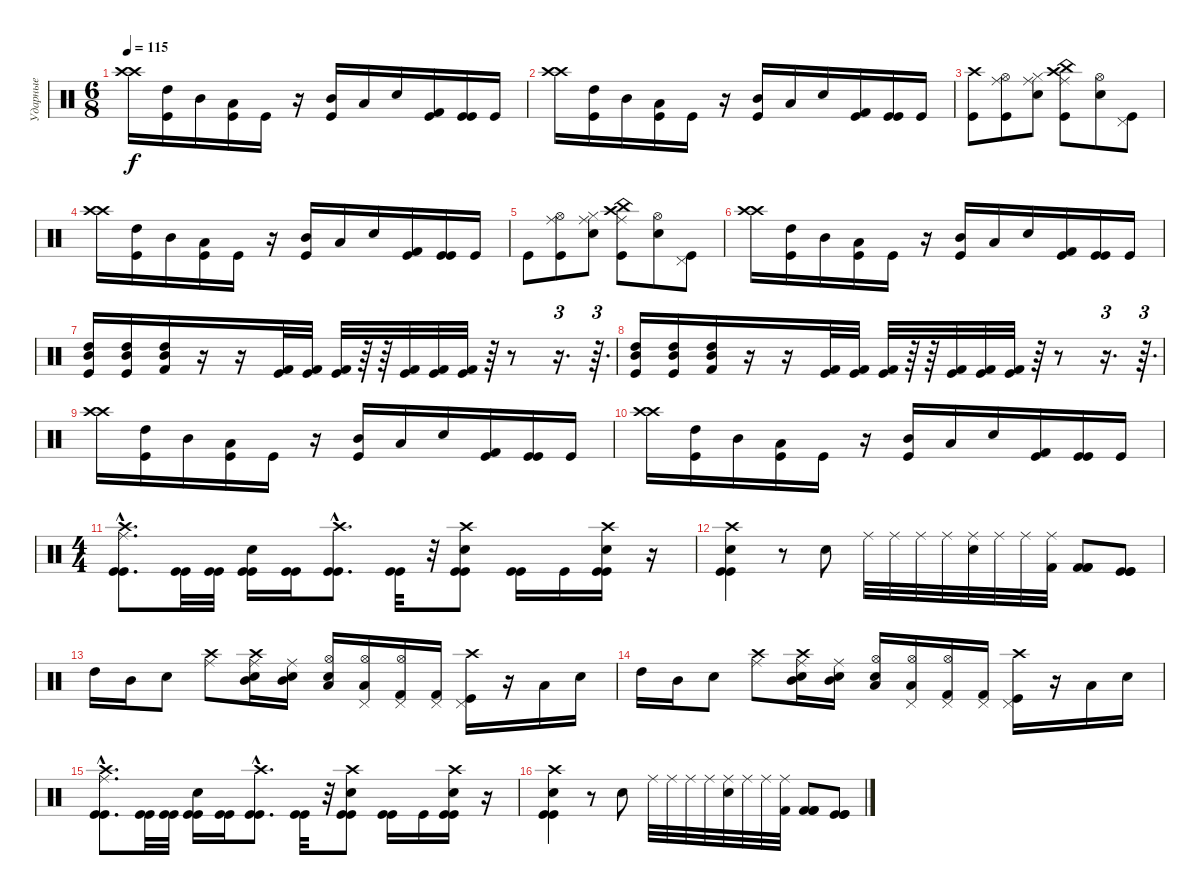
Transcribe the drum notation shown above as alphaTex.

\track ("Ударные" "Ударные") {instrument percussion}
\staff {score}
\articulation defaults
\ts (6 8)
\tempo 115
\clef neutral
\ks c
("Crash high (hit)" "Crash high (hit)").16{dy f} ("High Tom (hit)" "Kick (hit)").16 "Mid Tom (hit)".16 ("Low Tom (hit)" "Kick (hit)").16 "Kick (hit)".16 r.16 ("Mid Tom (hit)" "Kick (hit)").16 "Low Tom (hit)".16 "Snare (hit) 2".16 ("Kick (hit) 2" "Kick (hit)").16 ("Kick (hit)" "Kick (hit)").16 "Kick (hit)".16 |
("Crash high (hit)" "Crash high (hit)").16 ("High Tom (hit)" "Kick (hit)").16 "Mid Tom (hit)".16 ("Low Tom (hit)" "Kick (hit)").16 "Kick (hit)".16 r.16 ("Mid Tom (hit)" "Kick (hit)").16 "Low Tom (hit)".16 "Snare (hit) 2".16 ("Kick (hit) 2" "Kick (hit)").16 ("Kick (hit)" "Kick (hit)").16 "Kick (hit)".16 |
("Kick (hit)" "Crash high (hit)").8 ("Ride (middle)" "Kick (hit)" "Hi-Hat (open)").8 ("Ride (middle)" "Snare (hit) 2" "Hi-Hat (closed)").8 ("Ride (middle)" "Kick (hit)" "China (hit)" "Crash high (hit)").8 ("Hi-Hat (open)" "Electric Snare (hit)").8 ("Pedal Hi-Hat (hit)" "Kick (hit)").8 |
("Crash high (hit)" "Crash high (hit)").16 ("High Tom (hit)" "Kick (hit)").16 "Mid Tom (hit)".16 ("Low Tom (hit)" "Kick (hit)").16 "Kick (hit)".16 r.16 ("Mid Tom (hit)" "Kick (hit)").16 "Low Tom (hit)".16 "Snare (hit) 2".16 ("Kick (hit) 2" "Kick (hit)").16 ("Kick (hit)" "Kick (hit)").16 "Kick (hit)".16 |
"Kick (hit)".8 ("Ride (middle)" "Kick (hit)" "Hi-Hat (open)").8 ("Ride (middle)" "Snare (hit) 2" "Hi-Hat (closed)").8 ("Ride (middle)" "Kick (hit)" "China (hit)" "Crash high (hit)").8 ("Hi-Hat (open)" "Electric Snare (hit)").8 ("Pedal Hi-Hat (hit)" "Kick (hit)").8 |
("Crash high (hit)" "Crash high (hit)").16 ("High Tom (hit)" "Kick (hit)").16 "Mid Tom (hit)".16 ("Low Tom (hit)" "Kick (hit)").16 "Kick (hit)".16 r.16 ("Mid Tom (hit)" "Kick (hit)").16 "Low Tom (hit)".16 "Snare (hit) 2".16 ("Kick (hit) 2" "Kick (hit)").16 ("Kick (hit)" "Kick (hit)").16 "Kick (hit)".16 |
("High Tom (hit)" "Mid Tom (hit)" "Kick (hit)").16 ("High Tom (hit)" "Mid Tom (hit)" "Kick (hit)").16 ("High Tom (hit)" "Mid Tom (hit)" "Kick (hit) 2").16 r.16 r.16 ("Kick (hit)" "Kick (hit) 2").32 ("Kick (hit)" "Kick (hit) 2").32 ("Kick (hit)" "Kick (hit) 2").32 r.64 r.64 ("Kick (hit)" "Kick (hit) 2").32 ("Kick (hit)" "Kick (hit) 2").32 ("Kick (hit)" "Kick (hit) 2").32 r.64 r.8 r.16{d tu (3 2)} r.64{d tu (3 2)} |
("High Tom (hit)" "Mid Tom (hit)" "Kick (hit)").16 ("High Tom (hit)" "Mid Tom (hit)" "Kick (hit)").16 ("High Tom (hit)" "Mid Tom (hit)" "Kick (hit) 2").16 r.16 r.16 ("Kick (hit)" "Kick (hit) 2").32 ("Kick (hit)" "Kick (hit) 2").32 ("Kick (hit)" "Kick (hit) 2").32 r.64 r.64 ("Kick (hit)" "Kick (hit) 2").32 ("Kick (hit)" "Kick (hit) 2").32 ("Kick (hit)" "Kick (hit) 2").32 r.64 r.8 r.16{d tu (3 2)} r.64{d tu (3 2)} |
("Crash high (hit)" "Crash high (hit)").16 ("High Tom (hit)" "Kick (hit)").16 "Mid Tom (hit)".16 ("Low Tom (hit)" "Kick (hit)").16 "Kick (hit)".16 r.16 ("Mid Tom (hit)" "Kick (hit)").16 "Low Tom (hit)".16 "Snare (hit) 2".16 ("Kick (hit) 2" "Kick (hit)").16 ("Kick (hit)" "Kick (hit)").16 "Kick (hit)".16 |
("Crash high (hit)" "Crash high (hit)").16 ("High Tom (hit)" "Kick (hit)").16 "Mid Tom (hit)".16 ("Low Tom (hit)" "Kick (hit)").16 "Kick (hit)".16 r.16 ("Mid Tom (hit)" "Kick (hit)").16 "Low Tom (hit)".16 "Snare (hit) 2".16 ("Kick (hit) 2" "Kick (hit)").16 ("Kick (hit)" "Kick (hit)").16 "Kick (hit)".16 |
\ts (4 4)
("Ride (middle)"{hac} "Crash high (hit)"{hac} "Kick (hit)"{hac} "Kick (hit)"{hac}).8{d} ("Kick (hit)" "Kick (hit)").32 ("Kick (hit)" "Kick (hit)").32 ("Kick (hit)" "Snare (hit) 2" "Kick (hit)").16 ("Kick (hit)" "Kick (hit)").16 ("Crash high (hit)"{hac} "Kick (hit)"{hac} "Kick (hit)"{hac}).8{d} ("Kick (hit)" "Kick (hit)").32 r.32 ("Crash high (hit)" "Kick (hit)" "Snare (hit) 2" "Kick (hit)").8 ("Kick (hit)" "Kick (hit)").16 "Kick (hit)".16 ("Crash high (hit)" "Kick (hit)" "Kick (hit)" "Snare (hit) 2").16 r.16 |
("Crash high (hit)" "Kick (hit)" "Snare (hit) 2" "Kick (hit)").4 r.8 "Electric Snare (hit)".8 "Ride (middle)".32{volume 0} "Ride (middle)".32{volume 14} "Ride (middle)".32 "Ride (middle)".32 ("Ride (middle)" "Electric Snare (hit)").32 "Ride (middle)".32 "Ride (middle)".32 ("Ride (middle)" "Kick (hit) 2").32 ("Kick (hit) 2" "Kick (hit) 2" "Kick (hit) 2").8 ("Kick (hit)" "Kick (hit)" "Kick (hit)").8 |
"High Tom (hit)".16 "Mid Tom (hit)".16 "Electric Snare (hit)".8 ("Crash high (hit)" "Ride (middle)").8 ("Crash high (hit)" "Mid Tom (hit)" "Electric Snare (hit)" "Ride (middle)").16 ("Mid Tom (hit)" "Electric Snare (hit)" "Ride (middle)").16 ("Electric Snare (hit)" "Low Tom (hit)" "Hi-Hat (open)").16 ("Hi-Hat (open)" "Low Tom (hit)" "Pedal Hi-Hat (hit)").16 ("Pedal Hi-Hat (hit)" "Kick (hit) 2" "Hi-Hat (open)").16 ("Kick (hit) 2" "Pedal Hi-Hat (hit)").16 ("Crash high (hit)" "Kick (hit)" "Pedal Hi-Hat (hit)").16 r.16 "Low Floor Tom (hit)".16 "Electric Snare (hit)".16 |
"High Tom (hit)".16 "Mid Tom (hit)".16 "Electric Snare (hit)".8 ("Crash high (hit)" "Ride (middle)").8 ("Crash high (hit)" "Mid Tom (hit)" "Electric Snare (hit)" "Ride (middle)").16 ("Mid Tom (hit)" "Electric Snare (hit)" "Ride (middle)").16 ("Electric Snare (hit)" "Low Tom (hit)" "Hi-Hat (open)").16 ("Hi-Hat (open)" "Low Tom (hit)" "Pedal Hi-Hat (hit)").16 ("Pedal Hi-Hat (hit)" "Kick (hit) 2" "Hi-Hat (open)").16 ("Kick (hit) 2" "Pedal Hi-Hat (hit)").16 ("Crash high (hit)" "Kick (hit)" "Pedal Hi-Hat (hit)").16 r.16 "Low Floor Tom (hit)".16 "Electric Snare (hit)".16 |
("Ride (middle)"{hac} "Crash high (hit)"{hac} "Kick (hit)"{hac} "Kick (hit)"{hac}).8{d} ("Kick (hit)" "Kick (hit)").32 ("Kick (hit)" "Kick (hit)").32 ("Kick (hit)" "Snare (hit) 2" "Kick (hit)").16 ("Kick (hit)" "Kick (hit)").16 ("Crash high (hit)"{hac} "Kick (hit)"{hac} "Kick (hit)"{hac}).8{d} ("Kick (hit)" "Kick (hit)").32 r.32 ("Crash high (hit)" "Kick (hit)" "Snare (hit) 2" "Kick (hit)").8 ("Kick (hit)" "Kick (hit)").16 "Kick (hit)".16 ("Crash high (hit)" "Kick (hit)" "Kick (hit)" "Snare (hit) 2").16 r.16 |
("Crash high (hit)" "Kick (hit)" "Snare (hit) 2" "Kick (hit)").4 r.8 "Electric Snare (hit)".8 "Ride (middle)".32{volume 0} "Ride (middle)".32{volume 14} "Ride (middle)".32 "Ride (middle)".32 ("Ride (middle)" "Electric Snare (hit)").32 "Ride (middle)".32 "Ride (middle)".32 ("Ride (middle)" "Kick (hit) 2").32 ("Kick (hit) 2" "Kick (hit) 2" "Kick (hit) 2").8 ("Kick (hit)" "Kick (hit)" "Kick (hit)").8
